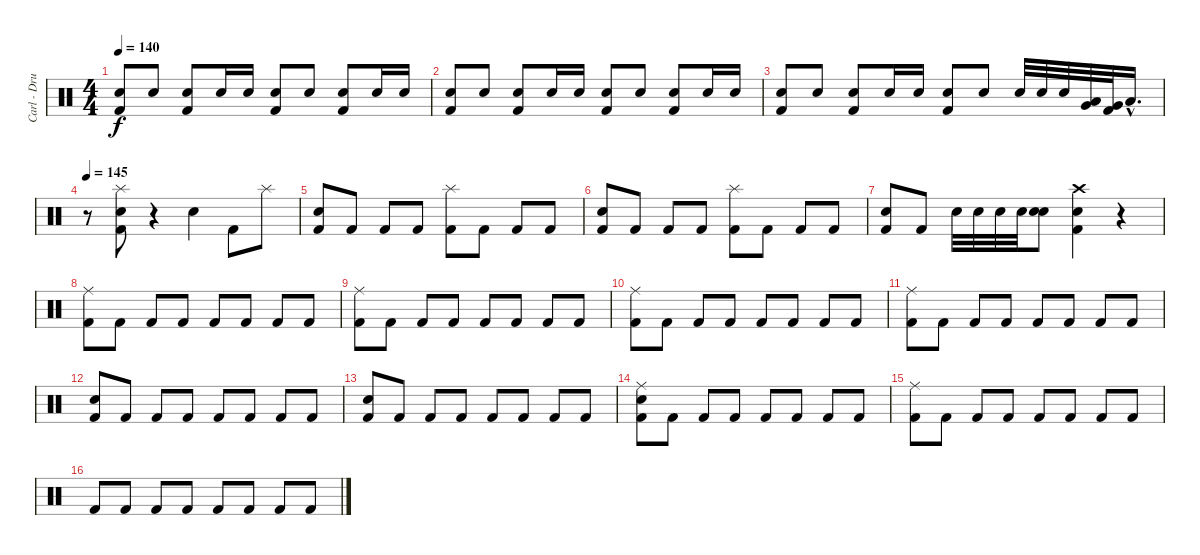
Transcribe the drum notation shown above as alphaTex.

\track ("Carl - Drums" "Carl - Dru") {instrument percussion}
\staff {score}
\articulation defaults
\ts (4 4)
\tempo 140
\clef neutral
\ks c
("Electric Snare (hit)" "Kick (hit) 2").8{dy f} "Electric Snare (hit)".8 ("Electric Snare (hit)" "Kick (hit) 2").8 "Electric Snare (hit)".16 "Electric Snare (hit)".16 ("Electric Snare (hit)" "Kick (hit) 2").8 "Electric Snare (hit)".8 ("Electric Snare (hit)" "Kick (hit) 2").8 "Electric Snare (hit)".16 "Electric Snare (hit)".16 |
("Electric Snare (hit)" "Kick (hit) 2").8 "Electric Snare (hit)".8 ("Electric Snare (hit)" "Kick (hit) 2").8 "Electric Snare (hit)".16 "Electric Snare (hit)".16 ("Electric Snare (hit)" "Kick (hit) 2").8 "Electric Snare (hit)".8 ("Electric Snare (hit)" "Kick (hit) 2").8 "Electric Snare (hit)".16 "Electric Snare (hit)".16 |
("Electric Snare (hit)" "Kick (hit) 2").8 "Electric Snare (hit)".8 ("Electric Snare (hit)" "Kick (hit) 2").8 "Electric Snare (hit)".16 "Electric Snare (hit)".16 ("Electric Snare (hit)" "Kick (hit) 2").8 "Electric Snare (hit)".8 "Electric Snare (hit)".32 "Electric Snare (hit)".32 "Electric Snare (hit)".32 ("Low Floor Tom (hit)" "Very Low Tom (hit)").32 ("Very Low Tom (hit)" "Kick (hit) 2").32 "Low Floor Tom (hit)"{hac}.16{d} |
\tempo 145
r.8 ("Splash (hit)" "Electric Snare (hit)" "Kick (hit) 2").8 r.4 "Electric Snare (hit)".4 "Kick (hit) 2".8 "Splash (hit)".8 |
("Electric Snare (hit)" "Kick (hit) 2").8 "Kick (hit) 2".8 "Kick (hit) 2".8 "Kick (hit) 2".8 ("Splash (hit)" "Kick (hit) 2").8 "Kick (hit) 2".8 "Kick (hit) 2".8 "Kick (hit) 2".8 |
("Electric Snare (hit)" "Kick (hit) 2").8 "Kick (hit) 2".8 "Kick (hit) 2".8 "Kick (hit) 2".8 ("Splash (hit)" "Kick (hit) 2").8 "Kick (hit) 2".8 "Kick (hit) 2".8 "Kick (hit) 2".8 |
("Electric Snare (hit)" "Kick (hit) 2").8 "Kick (hit) 2".8 "Electric Snare (hit)".32 "Electric Snare (hit)".32 "Electric Snare (hit)".32 "Electric Snare (hit)".32 ("Electric Snare (hit)" "Electric Snare (hit)").8 ("Electric Snare (hit)" "Crash high (hit)" "Kick (hit) 2").4 r.4 |
("Ride (middle)" "Kick (hit) 2").8 "Kick (hit) 2".8 "Kick (hit) 2".8 "Kick (hit) 2".8 "Kick (hit) 2".8 "Kick (hit) 2".8 "Kick (hit) 2".8 "Kick (hit) 2".8 |
("Ride (middle)" "Kick (hit) 2").8 "Kick (hit) 2".8 "Kick (hit) 2".8 "Kick (hit) 2".8 "Kick (hit) 2".8 "Kick (hit) 2".8 "Kick (hit) 2".8 "Kick (hit) 2".8 |
("Ride (middle)" "Kick (hit) 2").8 "Kick (hit) 2".8 "Kick (hit) 2".8 "Kick (hit) 2".8 "Kick (hit) 2".8 "Kick (hit) 2".8 "Kick (hit) 2".8 "Kick (hit) 2".8 |
("Ride (middle)" "Kick (hit) 2").8 "Kick (hit) 2".8 "Kick (hit) 2".8 "Kick (hit) 2".8 "Kick (hit) 2".8 "Kick (hit) 2".8 "Kick (hit) 2".8 "Kick (hit) 2".8 |
("Electric Snare (hit)" "Kick (hit) 2").8 "Kick (hit) 2".8 "Kick (hit) 2".8 "Kick (hit) 2".8 "Kick (hit) 2".8 "Kick (hit) 2".8 "Kick (hit) 2".8 "Kick (hit) 2".8 |
("Electric Snare (hit)" "Kick (hit) 2").8 "Kick (hit) 2".8 "Kick (hit) 2".8 "Kick (hit) 2".8 "Kick (hit) 2".8 "Kick (hit) 2".8 "Kick (hit) 2".8 "Kick (hit) 2".8 |
("Ride (middle)" "Electric Snare (hit)" "Kick (hit) 2").8 "Kick (hit) 2".8 "Kick (hit) 2".8 "Kick (hit) 2".8 "Kick (hit) 2".8 "Kick (hit) 2".8 "Kick (hit) 2".8 "Kick (hit) 2".8 |
("Ride (middle)" "Kick (hit) 2").8 "Kick (hit) 2".8 "Kick (hit) 2".8 "Kick (hit) 2".8 "Kick (hit) 2".8 "Kick (hit) 2".8 "Kick (hit) 2".8 "Kick (hit) 2".8 |
"Kick (hit) 2".8 "Kick (hit) 2".8 "Kick (hit) 2".8 "Kick (hit) 2".8 "Kick (hit) 2".8 "Kick (hit) 2".8 "Kick (hit) 2".8 "Kick (hit) 2".8
